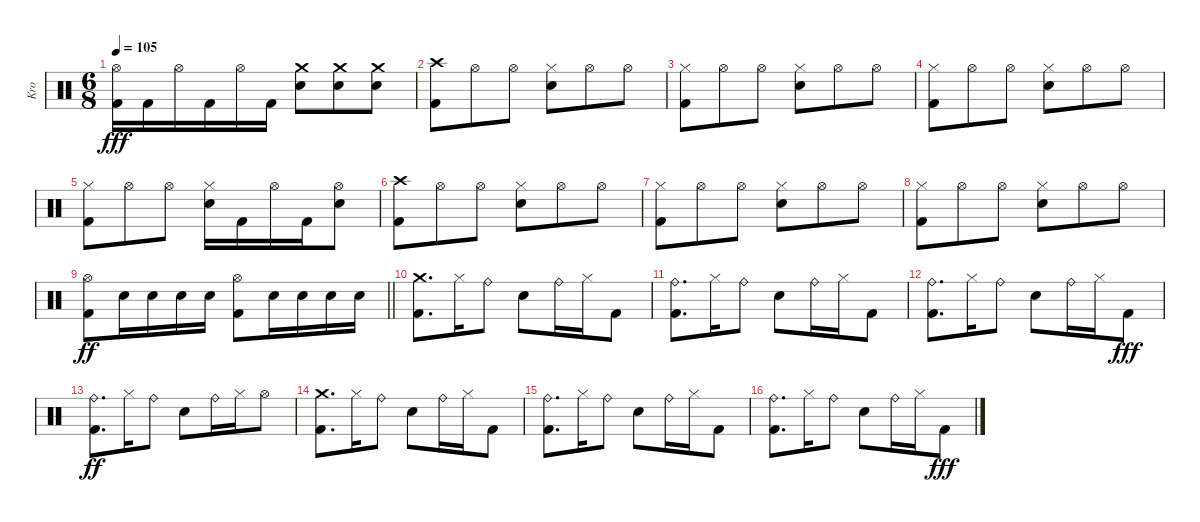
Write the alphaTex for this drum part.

\track ("Kro" "Kro") {instrument percussion}
\staff {score}
\articulation defaults
\ts (6 8)
\tempo 105
\clef neutral
\ks c
("Hi-Hat (open)" "Kick (hit) 2").16{dy fff} "Kick (hit) 2".16 "Hi-Hat (open)".16 "Kick (hit) 2".16 "Hi-Hat (open)".16 "Kick (hit) 2".16 ("Crash medium (hit)" "Electric Snare (hit)").8 ("Crash medium (hit)" "Electric Snare (hit)").8 ("Crash medium (hit)" "Electric Snare (hit)").8 |
("Crash high (hit)" "Kick (hit) 2").8 "Hi-Hat (open)".8 "Hi-Hat (open)".8 ("Hi-Hat (closed)" "Electric Snare (hit)").8 "Hi-Hat (open)".8 "Hi-Hat (open)".8 |
("Hi-Hat (closed)" "Kick (hit) 2").8 "Hi-Hat (open)".8 "Hi-Hat (open)".8 ("Hi-Hat (closed)" "Electric Snare (hit)").8 "Hi-Hat (open)".8 "Hi-Hat (open)".8 |
("Hi-Hat (closed)" "Kick (hit) 2").8 "Hi-Hat (open)".8 "Hi-Hat (open)".8 ("Hi-Hat (closed)" "Electric Snare (hit)").8 "Hi-Hat (open)".8 "Hi-Hat (open)".8 |
("Hi-Hat (closed)" "Kick (hit) 2").8 "Hi-Hat (open)".8 "Hi-Hat (open)".8 ("Hi-Hat (closed)" "Electric Snare (hit)").16 "Kick (hit) 2".16 "Hi-Hat (open)".16 "Kick (hit) 2".16 ("Hi-Hat (open)" "Electric Snare (hit)").8 |
("Crash high (hit)" "Kick (hit) 2").8 "Hi-Hat (open)".8 "Hi-Hat (open)".8 ("Hi-Hat (closed)" "Electric Snare (hit)").8 "Hi-Hat (open)".8 "Hi-Hat (open)".8 |
("Hi-Hat (closed)" "Kick (hit) 2").8 "Hi-Hat (open)".8 "Hi-Hat (open)".8 ("Hi-Hat (closed)" "Electric Snare (hit)").8 "Hi-Hat (open)".8 "Hi-Hat (open)".8 |
("Hi-Hat (closed)" "Kick (hit) 2").8 "Hi-Hat (open)".8 "Hi-Hat (open)".8 ("Hi-Hat (closed)" "Electric Snare (hit)").8 "Hi-Hat (open)".8 "Hi-Hat (open)".8 |
\barLineRight lightlight
("Hi-Hat (open)" "Kick (hit) 2").8{dy ff} "Electric Snare (hit)".16 "Electric Snare (hit)".16 "Electric Snare (hit)".16 "Electric Snare (hit)".16 ("Hi-Hat (open)" "Kick (hit) 2").8 "Electric Snare (hit)".16 "Electric Snare (hit)".16 "Electric Snare (hit)".16 "Electric Snare (hit)".16 |
("Crash medium (hit)" "Kick (hit) 2").8{d} "Hi-Hat (closed)".16 "Ride (bell)".8 "Electric Snare (hit)".8 "Ride (bell)".16 "Hi-Hat (closed)".16 "Kick (hit) 2".8 |
("Ride (bell)" "Kick (hit) 2").8{d} "Hi-Hat (closed)".16 "Ride (bell)".8 "Electric Snare (hit)".8 "Ride (bell)".16 "Hi-Hat (closed)".16 "Kick (hit) 2".8 |
("Ride (bell)" "Kick (hit) 2").8{d} "Hi-Hat (closed)".16 "Ride (bell)".8 "Electric Snare (hit)".8 "Ride (bell)".16 "Hi-Hat (closed)".16 "Kick (hit) 2".8{dy fff} |
("Ride (bell)" "Kick (hit) 2").8{d dy ff} "Hi-Hat (closed)".16 "Ride (bell)".8 "Electric Snare (hit)".8 "Ride (bell)".16 "Hi-Hat (closed)".16 "Hi-Hat (open)".8 |
("Crash medium (hit)" "Kick (hit) 2").8{d} "Hi-Hat (closed)".16 "Ride (bell)".8 "Electric Snare (hit)".8 "Ride (bell)".16 "Hi-Hat (closed)".16 "Kick (hit) 2".8 |
("Ride (bell)" "Kick (hit) 2").8{d} "Hi-Hat (closed)".16 "Ride (bell)".8 "Electric Snare (hit)".8 "Ride (bell)".16 "Hi-Hat (closed)".16 "Kick (hit) 2".8 |
("Ride (bell)" "Kick (hit) 2").8{d} "Hi-Hat (closed)".16 "Ride (bell)".8 "Electric Snare (hit)".8 "Ride (bell)".16 "Hi-Hat (closed)".16 "Kick (hit) 2".8{dy fff}
